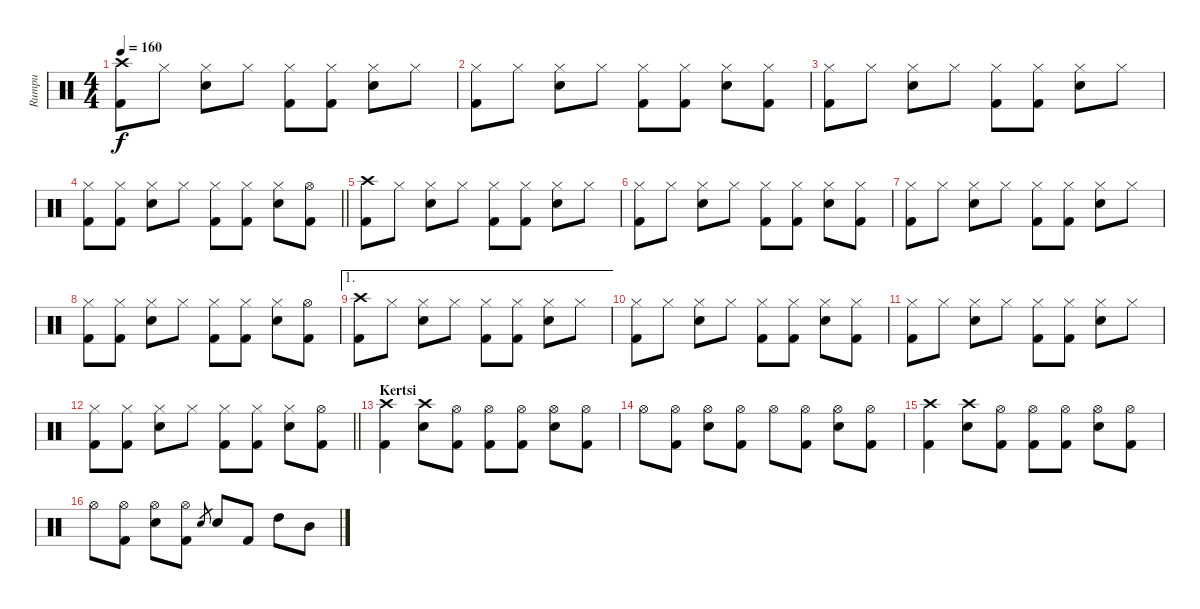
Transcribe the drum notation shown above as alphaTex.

\track ("Rumpu" "Rumpu") {instrument percussion}
\staff {score}
\articulation defaults
\ts (4 4)
\tempo 160
\clef neutral
\ks c
("Crash high (hit)" "Kick (hit) 2").8{dy f} "Hi-Hat (closed)".8 ("Hi-Hat (closed)" "Snare (hit) 2").8 "Hi-Hat (closed)".8 ("Hi-Hat (closed)" "Kick (hit) 2").8 ("Hi-Hat (closed)" "Kick (hit) 2").8 ("Hi-Hat (closed)" "Snare (hit) 2").8 "Hi-Hat (closed)".8 |
("Hi-Hat (closed)" "Kick (hit) 2").8 "Hi-Hat (closed)".8 ("Hi-Hat (closed)" "Snare (hit) 2").8 "Hi-Hat (closed)".8 ("Hi-Hat (closed)" "Kick (hit) 2").8 ("Hi-Hat (closed)" "Kick (hit) 2").8 ("Hi-Hat (closed)" "Snare (hit) 2").8 ("Hi-Hat (closed)" "Kick (hit) 2").8 |
("Hi-Hat (closed)" "Kick (hit) 2").8 "Hi-Hat (closed)".8 ("Hi-Hat (closed)" "Snare (hit) 2").8 "Hi-Hat (closed)".8 ("Hi-Hat (closed)" "Kick (hit) 2").8 ("Hi-Hat (closed)" "Kick (hit) 2").8 ("Hi-Hat (closed)" "Snare (hit) 2").8 "Hi-Hat (closed)".8 |
\barLineRight lightlight
("Hi-Hat (closed)" "Kick (hit) 2").8 ("Hi-Hat (closed)" "Kick (hit) 2").8 ("Hi-Hat (closed)" "Snare (hit) 2").8 "Hi-Hat (closed)".8 ("Hi-Hat (closed)" "Kick (hit) 2").8 ("Hi-Hat (closed)" "Kick (hit) 2").8 ("Hi-Hat (closed)" "Snare (hit) 2").8 ("Hi-Hat (open)" "Kick (hit) 2").8 |
("Crash high (hit)" "Kick (hit) 2").8 "Hi-Hat (closed)".8 ("Hi-Hat (closed)" "Snare (hit) 2").8 "Hi-Hat (closed)".8 ("Hi-Hat (closed)" "Kick (hit) 2").8 ("Hi-Hat (closed)" "Kick (hit) 2").8 ("Hi-Hat (closed)" "Snare (hit) 2").8 "Hi-Hat (closed)".8 |
("Hi-Hat (closed)" "Kick (hit) 2").8 "Hi-Hat (closed)".8 ("Hi-Hat (closed)" "Snare (hit) 2").8 "Hi-Hat (closed)".8 ("Hi-Hat (closed)" "Kick (hit) 2").8 ("Hi-Hat (closed)" "Kick (hit) 2").8 ("Hi-Hat (closed)" "Snare (hit) 2").8 ("Hi-Hat (closed)" "Kick (hit) 2").8 |
("Hi-Hat (closed)" "Kick (hit) 2").8 "Hi-Hat (closed)".8 ("Hi-Hat (closed)" "Snare (hit) 2").8 "Hi-Hat (closed)".8 ("Hi-Hat (closed)" "Kick (hit) 2").8 ("Hi-Hat (closed)" "Kick (hit) 2").8 ("Hi-Hat (closed)" "Snare (hit) 2").8 "Hi-Hat (closed)".8 |
("Hi-Hat (closed)" "Kick (hit) 2").8 ("Hi-Hat (closed)" "Kick (hit) 2").8 ("Hi-Hat (closed)" "Snare (hit) 2").8 "Hi-Hat (closed)".8 ("Hi-Hat (closed)" "Kick (hit) 2").8 ("Hi-Hat (closed)" "Kick (hit) 2").8 ("Hi-Hat (closed)" "Snare (hit) 2").8 ("Hi-Hat (open)" "Kick (hit) 2").8 |
\ae 1
("Crash high (hit)" "Kick (hit) 2").8 "Hi-Hat (closed)".8 ("Hi-Hat (closed)" "Snare (hit) 2").8 "Hi-Hat (closed)".8 ("Hi-Hat (closed)" "Kick (hit) 2").8 ("Hi-Hat (closed)" "Kick (hit) 2").8 ("Hi-Hat (closed)" "Snare (hit) 2").8 "Hi-Hat (closed)".8 |
("Hi-Hat (closed)" "Kick (hit) 2").8 "Hi-Hat (closed)".8 ("Hi-Hat (closed)" "Snare (hit) 2").8 "Hi-Hat (closed)".8 ("Hi-Hat (closed)" "Kick (hit) 2").8 ("Hi-Hat (closed)" "Kick (hit) 2").8 ("Hi-Hat (closed)" "Snare (hit) 2").8 ("Hi-Hat (closed)" "Kick (hit) 2").8 |
("Hi-Hat (closed)" "Kick (hit) 2").8 "Hi-Hat (closed)".8 ("Hi-Hat (closed)" "Snare (hit) 2").8 "Hi-Hat (closed)".8 ("Hi-Hat (closed)" "Kick (hit) 2").8 ("Hi-Hat (closed)" "Kick (hit) 2").8 ("Hi-Hat (closed)" "Snare (hit) 2").8 "Hi-Hat (closed)".8 |
\barLineRight lightlight
("Hi-Hat (closed)" "Kick (hit) 2").8 ("Hi-Hat (closed)" "Kick (hit) 2").8 ("Hi-Hat (closed)" "Snare (hit) 2").8 "Hi-Hat (closed)".8 ("Hi-Hat (closed)" "Kick (hit) 2").8 ("Hi-Hat (closed)" "Kick (hit) 2").8 ("Hi-Hat (closed)" "Snare (hit) 2").8 ("Hi-Hat (open)" "Kick (hit) 2").8 |
\section ("" "Kertsi")
("Crash high (hit)" "Kick (hit) 2").4 ("Crash high (hit)" "Snare (hit) 2").8 ("Hi-Hat (open)" "Kick (hit) 2").8 ("Hi-Hat (open)" "Kick (hit) 2").8 ("Hi-Hat (open)" "Kick (hit) 2").8 ("Hi-Hat (open)" "Snare (hit) 2").8 ("Hi-Hat (open)" "Kick (hit) 2").8 |
"Hi-Hat (open)".8 ("Hi-Hat (open)" "Kick (hit) 2").8 ("Hi-Hat (open)" "Snare (hit) 2").8 ("Hi-Hat (open)" "Kick (hit) 2").8 "Hi-Hat (open)".8 ("Hi-Hat (open)" "Kick (hit) 2").8 ("Hi-Hat (open)" "Snare (hit) 2").8 ("Hi-Hat (open)" "Kick (hit) 2").8 |
("Crash high (hit)" "Kick (hit) 2").4 ("Crash high (hit)" "Snare (hit) 2").8 ("Hi-Hat (open)" "Kick (hit) 2").8 ("Hi-Hat (open)" "Kick (hit) 2").8 ("Hi-Hat (open)" "Kick (hit) 2").8 ("Hi-Hat (open)" "Snare (hit) 2").8 ("Hi-Hat (open)" "Kick (hit) 2").8 |
"Hi-Hat (open)".8 ("Hi-Hat (open)" "Kick (hit) 2").8 ("Hi-Hat (open)" "Snare (hit) 2").8 ("Hi-Hat (open)" "Kick (hit) 2").8 "Snare (hit) 2"{sl}.8{gr} "Snare (hit) 2".8 "Kick (hit) 2".8 "High Tom (hit)".8 "Mid Tom (hit)".8
